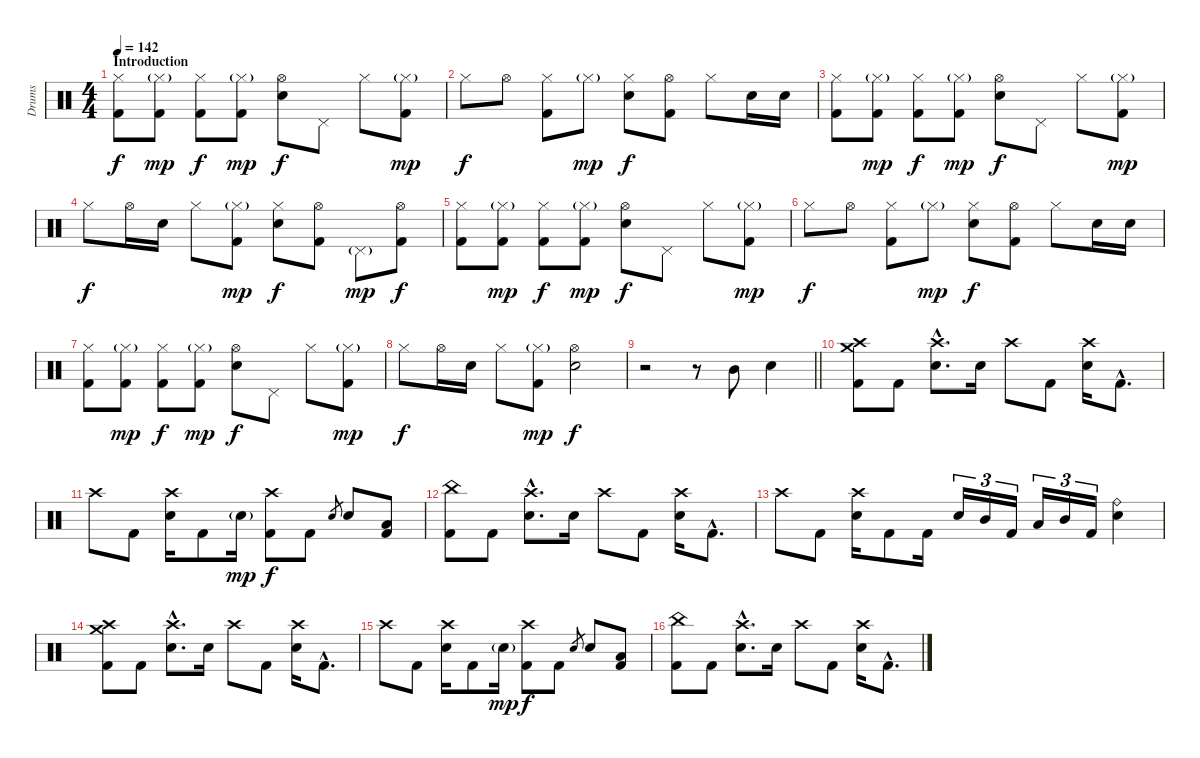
\track ("Drums" "Drums") {instrument percussion}
\staff {score}
\articulation defaults
\ts (4 4)
\section ("" "Introduction")
\tempo 142
\clef neutral
\ks c
("Hi-Hat (closed)" "Kick (hit) 2").8{dy f} ("Hi-Hat (closed)"{g} "Kick (hit) 2").8{dy mp} ("Hi-Hat (closed)" "Kick (hit) 2").8{dy f} ("Hi-Hat (closed)"{g} "Kick (hit) 2").8{dy mp} ("Hi-Hat (open)" "Electric Snare (hit)").8{dy f} "Pedal Hi-Hat (hit)".8 "Hi-Hat (closed)".8 ("Hi-Hat (closed)"{g} "Kick (hit) 2").8{dy mp} |
"Hi-Hat (closed)".8{dy f} "Hi-Hat (open)".8 ("Hi-Hat (closed)" "Kick (hit) 2").8 "Hi-Hat (closed)"{g}.8{dy mp} ("Hi-Hat (closed)" "Electric Snare (hit)").8{dy f} ("Hi-Hat (open)" "Kick (hit) 2").8 "Hi-Hat (closed)".8 "Electric Snare (hit)".16 "Electric Snare (hit)".16 |
("Hi-Hat (closed)" "Kick (hit) 2").8 ("Hi-Hat (closed)"{g} "Kick (hit) 2").8{dy mp} ("Hi-Hat (closed)" "Kick (hit) 2").8{dy f} ("Hi-Hat (closed)"{g} "Kick (hit) 2").8{dy mp} ("Hi-Hat (open)" "Electric Snare (hit)").8{dy f} "Pedal Hi-Hat (hit)".8 "Hi-Hat (closed)".8 ("Hi-Hat (closed)"{g} "Kick (hit) 2").8{dy mp} |
"Hi-Hat (closed)".8{dy f} "Hi-Hat (open)".16 "Electric Snare (hit)".16 "Hi-Hat (closed)".8 ("Hi-Hat (closed)"{g} "Kick (hit) 2").8{dy mp} ("Hi-Hat (closed)" "Electric Snare (hit)").8{dy f} ("Hi-Hat (open)" "Kick (hit) 2").8 "Pedal Hi-Hat (hit)"{g}.8{dy mp} ("Hi-Hat (open)" "Kick (hit) 2").8{dy f} |
("Hi-Hat (closed)" "Kick (hit) 2").8 ("Hi-Hat (closed)"{g} "Kick (hit) 2").8{dy mp} ("Hi-Hat (closed)" "Kick (hit) 2").8{dy f} ("Hi-Hat (closed)"{g} "Kick (hit) 2").8{dy mp} ("Hi-Hat (open)" "Electric Snare (hit)").8{dy f} "Pedal Hi-Hat (hit)".8 "Hi-Hat (closed)".8 ("Hi-Hat (closed)"{g} "Kick (hit) 2").8{dy mp} |
"Hi-Hat (closed)".8{dy f} "Hi-Hat (open)".8 ("Hi-Hat (closed)" "Kick (hit) 2").8 "Hi-Hat (closed)"{g}.8{dy mp} ("Hi-Hat (closed)" "Electric Snare (hit)").8{dy f} ("Hi-Hat (open)" "Kick (hit) 2").8 "Hi-Hat (closed)".8 "Electric Snare (hit)".16 "Electric Snare (hit)".16 |
("Hi-Hat (closed)" "Kick (hit) 2").8 ("Hi-Hat (closed)"{g} "Kick (hit) 2").8{dy mp} ("Hi-Hat (closed)" "Kick (hit) 2").8{dy f} ("Hi-Hat (closed)"{g} "Kick (hit) 2").8{dy mp} ("Hi-Hat (open)" "Electric Snare (hit)").8{dy f} "Pedal Hi-Hat (hit)".8 "Hi-Hat (closed)".8 ("Hi-Hat (closed)"{g} "Kick (hit) 2").8{dy mp} |
"Hi-Hat (closed)".8{dy f} "Hi-Hat (open)".16 "Electric Snare (hit)".16 "Hi-Hat (closed)".8 ("Hi-Hat (closed)"{g} "Kick (hit) 2").8{dy mp} ("Hi-Hat (open)" "Electric Snare (hit)").2{dy f} |
\barLineRight lightlight
r.2 r.8 "Mid Tom (hit)".8 "Electric Snare (hit)".4 |
\section ("" "")
("Crash high (hit)" "Crash medium (hit)" "Kick (hit) 2").8 "Kick (hit) 2".8 ("Crash high (hit)"{hac} "Electric Snare (hit)"{hac}).8{d} "Electric Snare (hit)".16 "Crash high (hit)".8 "Kick (hit) 2".8 ("Crash high (hit)" "Electric Snare (hit)").16 "Kick (hit) 2"{hac}.8{d} |
"Crash high (hit)".8 "Kick (hit) 2".8 ("Crash high (hit)" "Electric Snare (hit)").16 "Kick (hit) 2".8 "Electric Snare (hit)"{g}.16{dy mp} ("Crash high (hit)" "Kick (hit) 2").8{dy f} "Kick (hit) 2".8 "Electric Snare (hit)".8{gr} "Electric Snare (hit)".8 ("Low Floor Tom (hit)" "Kick (hit) 2").8 |
("China (hit)" "Kick (hit) 2").8 "Kick (hit) 2".8 ("Crash high (hit)"{hac} "Electric Snare (hit)"{hac}).8{d} "Electric Snare (hit)".16 "Crash high (hit)".8 "Kick (hit) 2".8 ("Crash high (hit)" "Electric Snare (hit)").16 "Kick (hit) 2"{hac}.8{d} |
"Crash high (hit)".8 "Kick (hit) 2".8 ("Crash high (hit)" "Electric Snare (hit)").16 "Kick (hit) 2".8 "Kick (hit) 2".16 "Electric Snare (hit)".16{tu (3 2)} "Mid Tom (hit)".16{tu (3 2)} "Kick (hit) 2".16{tu (3 2)} "Low Floor Tom (hit)".16{tu (3 2)} "Mid Tom (hit)".16{tu (3 2)} "Kick (hit) 2".16{tu (3 2)} ("Ride (bell)" "Electric Snare (hit)").4 |
("Crash high (hit)" "Crash medium (hit)" "Kick (hit) 2").8 "Kick (hit) 2".8 ("Crash high (hit)"{hac} "Electric Snare (hit)"{hac}).8{d} "Electric Snare (hit)".16 "Crash high (hit)".8 "Kick (hit) 2".8 ("Crash high (hit)" "Electric Snare (hit)").16 "Kick (hit) 2"{hac}.8{d} |
"Crash high (hit)".8 "Kick (hit) 2".8 ("Crash high (hit)" "Electric Snare (hit)").16 "Kick (hit) 2".8 "Electric Snare (hit)"{g}.16{dy mp} ("Crash high (hit)" "Kick (hit) 2").8{dy f} "Kick (hit) 2".8 "Electric Snare (hit)".8{gr} "Electric Snare (hit)".8 ("Low Floor Tom (hit)" "Kick (hit) 2").8 |
("China (hit)" "Kick (hit) 2").8 "Kick (hit) 2".8 ("Crash high (hit)"{hac} "Electric Snare (hit)"{hac}).8{d} "Electric Snare (hit)".16 "Crash high (hit)".8 "Kick (hit) 2".8 ("Crash high (hit)" "Electric Snare (hit)").16 "Kick (hit) 2"{hac}.8{d}
